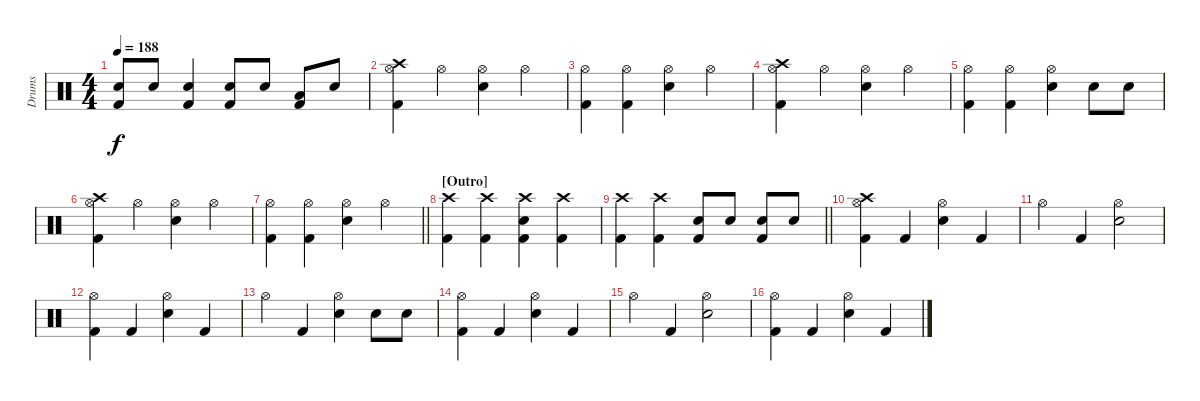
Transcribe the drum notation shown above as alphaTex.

\track ("Drums" "Drums") {instrument percussion}
\staff {score}
\articulation defaults
\ts (4 4)
\tempo 188
\clef neutral
\ks c
("Electric Snare (hit)" "Kick (hit) 2").8{dy f} "Electric Snare (hit)".8 ("Electric Snare (hit)" "Kick (hit) 2").4 ("Electric Snare (hit)" "Kick (hit) 2").8 "Electric Snare (hit)".8 ("Low Tom (hit)" "Kick (hit) 2").8 "Electric Snare (hit)".8 |
("Crash high (hit)" "Hi-Hat (open)" "Kick (hit) 2").4 "Hi-Hat (open)".4 ("Hi-Hat (open)" "Electric Snare (hit)").4 "Hi-Hat (open)".4 |
("Hi-Hat (open)" "Kick (hit) 2").4 ("Hi-Hat (open)" "Kick (hit) 2").4 ("Hi-Hat (open)" "Electric Snare (hit)").4 "Hi-Hat (open)".4 |
("Crash high (hit)" "Hi-Hat (open)" "Kick (hit) 2").4 "Hi-Hat (open)".4 ("Hi-Hat (open)" "Electric Snare (hit)").4 "Hi-Hat (open)".4 |
("Hi-Hat (open)" "Kick (hit) 2").4 ("Hi-Hat (open)" "Kick (hit) 2").4 ("Hi-Hat (open)" "Electric Snare (hit)").4 "Electric Snare (hit)".8 "Electric Snare (hit)".8 |
("Crash high (hit)" "Hi-Hat (open)" "Kick (hit) 2").4 "Hi-Hat (open)".4 ("Hi-Hat (open)" "Electric Snare (hit)").4 "Hi-Hat (open)".4 |
\barLineRight lightlight
("Hi-Hat (open)" "Kick (hit) 2").4 ("Hi-Hat (open)" "Kick (hit) 2").4 ("Hi-Hat (open)" "Electric Snare (hit)").4 "Hi-Hat (open)".4 |
\section ("" "[Outro]")
("Crash high (hit)" "Kick (hit) 2").4 ("Crash high (hit)" "Kick (hit) 2").4 ("Crash high (hit)" "Electric Snare (hit)" "Kick (hit) 2").4 ("Crash high (hit)" "Kick (hit) 2").4 |
\barLineRight lightlight
("Crash high (hit)" "Kick (hit) 2").4 ("Crash high (hit)" "Kick (hit) 2").4 ("Electric Snare (hit)" "Kick (hit) 2").8 "Electric Snare (hit)".8 ("Electric Snare (hit)" "Kick (hit) 2").8 "Electric Snare (hit)".8 |
("Crash high (hit)" "Hi-Hat (open)" "Kick (hit) 2").4 "Kick (hit) 2".4 ("Hi-Hat (open)" "Electric Snare (hit)").4 "Kick (hit) 2".4 |
"Hi-Hat (open)".4 "Kick (hit) 2".4 ("Hi-Hat (open)" "Electric Snare (hit)").2 |
("Hi-Hat (open)" "Kick (hit) 2").4 "Kick (hit) 2".4 ("Hi-Hat (open)" "Electric Snare (hit)").4 "Kick (hit) 2".4 |
"Hi-Hat (open)".4 "Kick (hit) 2".4 ("Hi-Hat (open)" "Electric Snare (hit)").4 "Electric Snare (hit)".8 "Electric Snare (hit)".8 |
("Hi-Hat (open)" "Kick (hit) 2").4 "Kick (hit) 2".4 ("Hi-Hat (open)" "Electric Snare (hit)").4 "Kick (hit) 2".4 |
"Hi-Hat (open)".4 "Kick (hit) 2".4 ("Hi-Hat (open)" "Electric Snare (hit)").2 |
("Hi-Hat (open)" "Kick (hit) 2").4 "Kick (hit) 2".4 ("Hi-Hat (open)" "Electric Snare (hit)").4 "Kick (hit) 2".4
